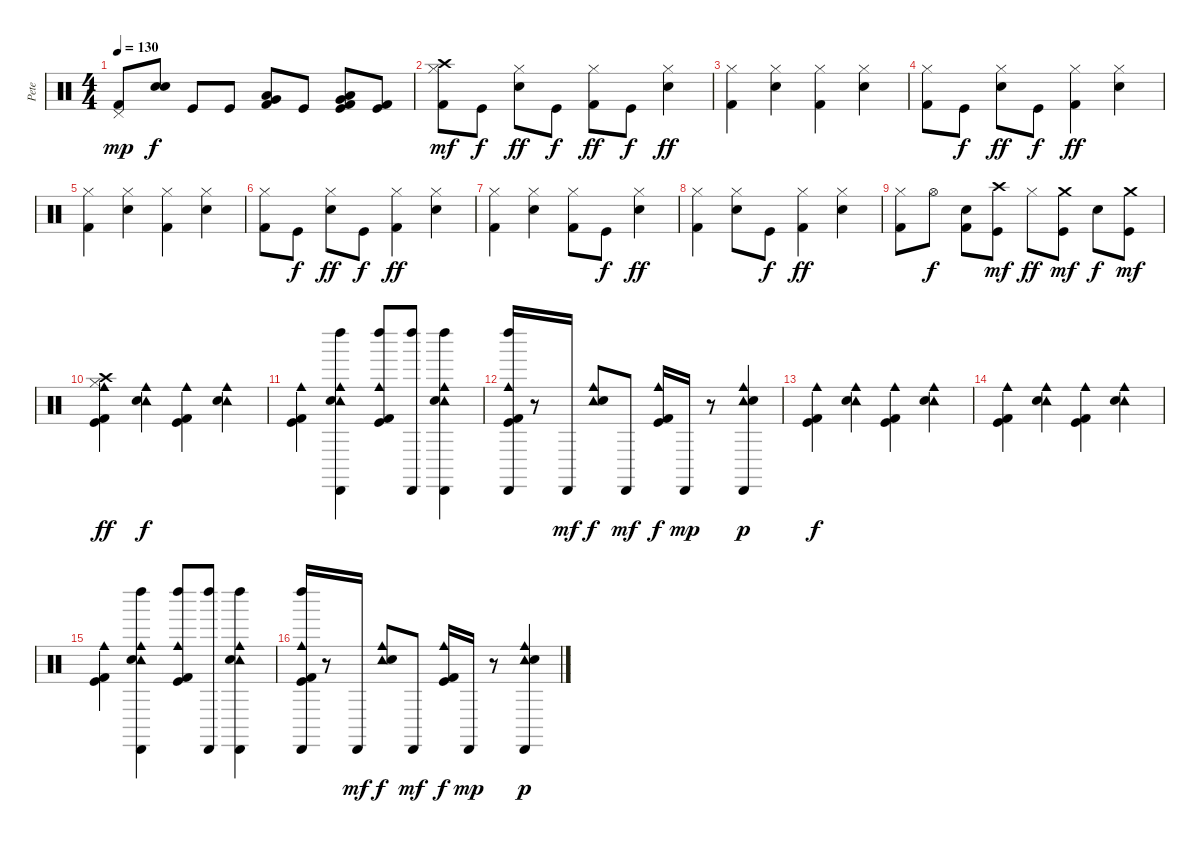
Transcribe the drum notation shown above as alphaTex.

\track ("Pete" "Pete") {instrument percussion}
\staff {score}
\articulation defaults
\ts (4 4)
\tempo 130
\clef neutral
\ks c
("Pedal Hi-Hat (hit)" "Kick (hit) 2").8{dy mp} ("Electric Snare (hit)" "Snare (hit) 2").8{dy f} "Kick (hit)".8 "Kick (hit)".8 ("Low Tom (hit)" "Kick (hit) 2" "Very Low Tom (hit)").8 "Kick (hit)".8 ("Kick (hit) 2" "Low Floor Tom (hit)" "Very Low Tom (hit)" "Kick (hit)").8 ("Kick (hit)" "Kick (hit) 2").8 |
("Hi-Hat (closed)" "Crash high (hit)" "Kick (hit) 2").8{dy mf} "Kick (hit)".8{dy f} ("Hi-Hat (closed)" "Snare (hit) 2").8{dy ff} "Kick (hit)".8{dy f} ("Hi-Hat (closed)" "Kick (hit) 2").8{dy ff} "Kick (hit)".8{dy f} ("Hi-Hat (closed)" "Snare (hit) 2").4{dy ff} |
("Hi-Hat (closed)" "Kick (hit) 2").4 ("Hi-Hat (closed)" "Snare (hit) 2").4 ("Hi-Hat (closed)" "Kick (hit) 2").4 ("Hi-Hat (closed)" "Snare (hit) 2").4 |
("Hi-Hat (closed)" "Kick (hit) 2").8 "Kick (hit)".8{dy f} ("Hi-Hat (closed)" "Snare (hit) 2").8{dy ff} "Kick (hit)".8{dy f} ("Hi-Hat (closed)" "Kick (hit) 2").4{dy ff} ("Hi-Hat (closed)" "Snare (hit) 2").4 |
("Hi-Hat (closed)" "Kick (hit) 2").4 ("Hi-Hat (closed)" "Snare (hit) 2").4 ("Hi-Hat (closed)" "Kick (hit) 2").4 ("Hi-Hat (closed)" "Snare (hit) 2").4 |
("Hi-Hat (closed)" "Kick (hit) 2").8 "Kick (hit)".8{dy f} ("Hi-Hat (closed)" "Snare (hit) 2").8{dy ff} "Kick (hit)".8{dy f} ("Hi-Hat (closed)" "Kick (hit) 2").4{dy ff} ("Hi-Hat (closed)" "Snare (hit) 2").4 |
("Hi-Hat (closed)" "Kick (hit) 2").4 ("Hi-Hat (closed)" "Snare (hit) 2").4 ("Hi-Hat (closed)" "Kick (hit) 2").8 "Kick (hit)".8{dy f} ("Hi-Hat (closed)" "Snare (hit) 2").4{dy ff} |
("Hi-Hat (closed)" "Kick (hit) 2").4 ("Hi-Hat (closed)" "Snare (hit) 2").8 "Kick (hit)".8{dy f} ("Hi-Hat (closed)" "Kick (hit) 2").4{dy ff} ("Hi-Hat (closed)" "Snare (hit) 2").4 |
("Hi-Hat (closed)" "Kick (hit) 2").8 "Hi-Hat (open)".8{dy f} ("Kick (hit) 2" "Snare (hit) 2").8 ("Kick (hit)" "Crash high (hit)").8{dy mf} "Hi-Hat (closed)".8{dy ff} ("Kick (hit)" "Crash medium (hit)").8{dy mf} "Snare (hit) 2".8{dy f} ("Crash medium (hit)" "Kick (hit)").8{dy mf} |
("Cowbell medium (hit)" "Kick (hit)" "Crash high (hit)" "Hi-Hat (closed)" "Kick (hit) 2").4{dy ff} ("Tambourine (hit)" "Hand Clap (hit)" "Cowbell medium (hit)").4{dy f} ("Cowbell medium (hit)" "Kick (hit) 2" "Kick (hit)").4 ("Tambourine (hit)" "Hand Clap (hit)" "Cowbell medium (hit)").4 |
("Cowbell medium (hit)" "Kick (hit)" "Kick (hit) 2").4 ("Cabasa (hit)" "Left Maraca (hit)" "Tambourine (hit)" "Hand Clap (hit)" "Cowbell medium (hit)").4 ("Left Maraca (hit)" "Cowbell medium (hit)" "Kick (hit)" "Kick (hit) 2").8 ("Left Maraca (hit)" "Cabasa (hit)").8 ("Tambourine (hit)" "Hand Clap (hit)" "Cowbell medium (hit)" "Left Maraca (hit)" "Cabasa (hit)").4 |
("Kick (hit)" "Kick (hit) 2" "Cowbell medium (hit)" "Left Maraca (hit)" "Cabasa (hit)").16 r.8 "Cabasa (hit)".16{dy mf} ("Tambourine (hit)" "Cowbell medium (hit)" "Hand Clap (hit)").8{dy f} "Cabasa (hit)".8{dy mf} ("Cowbell medium (hit)" "Kick (hit)" "Kick (hit) 2").16{dy f} "Cabasa (hit)".16{dy mp} r.8 ("Tambourine (hit)" "Cowbell medium (hit)" "Hand Clap (hit)" "Cabasa (hit)").4{dy p} |
("Cowbell medium (hit)" "Kick (hit)" "Kick (hit) 2").4{dy f} ("Tambourine (hit)" "Cowbell medium (hit)" "Hand Clap (hit)").4 ("Cowbell medium (hit)" "Kick (hit)" "Kick (hit) 2").4 ("Tambourine (hit)" "Cowbell medium (hit)" "Hand Clap (hit)").4 |
("Cowbell medium (hit)" "Kick (hit)" "Kick (hit) 2").4 ("Tambourine (hit)" "Cowbell medium (hit)" "Hand Clap (hit)").4 ("Cowbell medium (hit)" "Kick (hit)" "Kick (hit) 2").4 ("Tambourine (hit)" "Cowbell medium (hit)" "Hand Clap (hit)").4 |
("Cowbell medium (hit)" "Kick (hit)" "Kick (hit) 2").4 ("Cabasa (hit)" "Left Maraca (hit)" "Tambourine (hit)" "Hand Clap (hit)" "Cowbell medium (hit)").4 ("Left Maraca (hit)" "Cowbell medium (hit)" "Kick (hit)" "Kick (hit) 2").8 ("Left Maraca (hit)" "Cabasa (hit)").8 ("Tambourine (hit)" "Hand Clap (hit)" "Cowbell medium (hit)" "Left Maraca (hit)" "Cabasa (hit)").4 |
("Kick (hit)" "Kick (hit) 2" "Cowbell medium (hit)" "Left Maraca (hit)" "Cabasa (hit)").16 r.8 "Cabasa (hit)".16{dy mf} ("Tambourine (hit)" "Cowbell medium (hit)" "Hand Clap (hit)").8{dy f} "Cabasa (hit)".8{dy mf} ("Cowbell medium (hit)" "Kick (hit)" "Kick (hit) 2").16{dy f} "Cabasa (hit)".16{dy mp} r.8 ("Tambourine (hit)" "Cowbell medium (hit)" "Hand Clap (hit)" "Cabasa (hit)").4{dy p}
